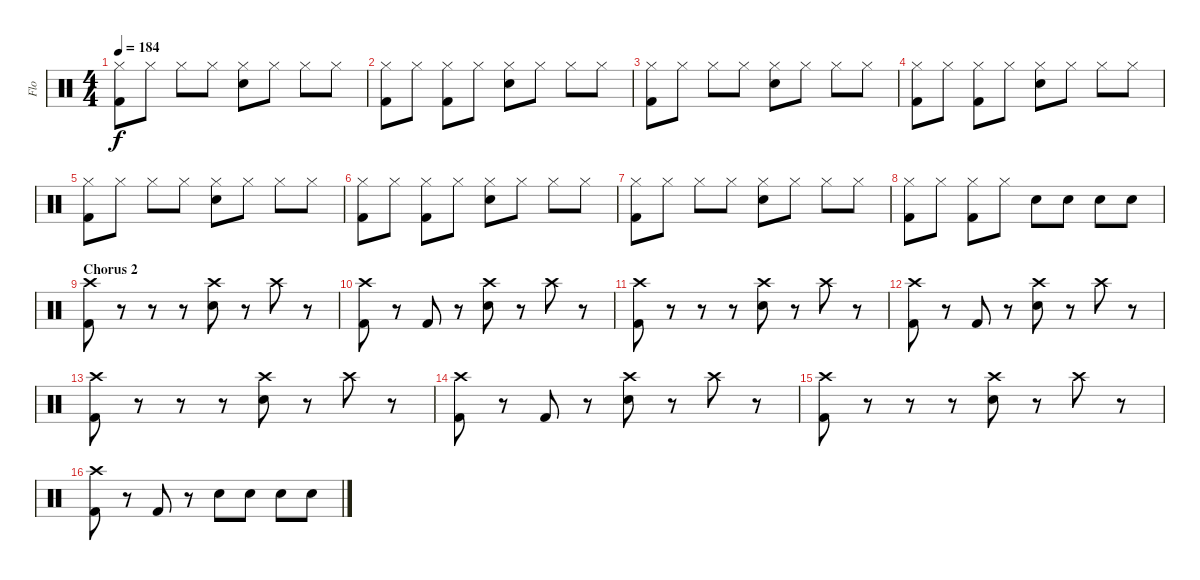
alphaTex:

\track ("Flo" "Flo") {instrument percussion}
\staff {score}
\articulation defaults
\ts (4 4)
\tempo 184
\clef neutral
\ks c
("Hi-Hat (closed)" "Kick (hit) 2").8{dy f} "Hi-Hat (closed)".8 "Hi-Hat (closed)".8 "Hi-Hat (closed)".8 ("Hi-Hat (closed)" "Electric Snare (hit)").8 "Hi-Hat (closed)".8 "Hi-Hat (closed)".8 "Hi-Hat (closed)".8 |
("Hi-Hat (closed)" "Kick (hit) 2").8 "Hi-Hat (closed)".8 ("Hi-Hat (closed)" "Kick (hit) 2").8 "Hi-Hat (closed)".8 ("Hi-Hat (closed)" "Electric Snare (hit)").8 "Hi-Hat (closed)".8 "Hi-Hat (closed)".8 "Hi-Hat (closed)".8 |
("Hi-Hat (closed)" "Kick (hit) 2").8 "Hi-Hat (closed)".8 "Hi-Hat (closed)".8 "Hi-Hat (closed)".8 ("Hi-Hat (closed)" "Electric Snare (hit)").8 "Hi-Hat (closed)".8 "Hi-Hat (closed)".8 "Hi-Hat (closed)".8 |
("Hi-Hat (closed)" "Kick (hit) 2").8 "Hi-Hat (closed)".8 ("Hi-Hat (closed)" "Kick (hit) 2").8 "Hi-Hat (closed)".8 ("Hi-Hat (closed)" "Electric Snare (hit)").8 "Hi-Hat (closed)".8 "Hi-Hat (closed)".8 "Hi-Hat (closed)".8 |
("Hi-Hat (closed)" "Kick (hit) 2").8 "Hi-Hat (closed)".8 "Hi-Hat (closed)".8 "Hi-Hat (closed)".8 ("Hi-Hat (closed)" "Electric Snare (hit)").8 "Hi-Hat (closed)".8 "Hi-Hat (closed)".8 "Hi-Hat (closed)".8 |
("Hi-Hat (closed)" "Kick (hit) 2").8 "Hi-Hat (closed)".8 ("Hi-Hat (closed)" "Kick (hit) 2").8 "Hi-Hat (closed)".8 ("Hi-Hat (closed)" "Electric Snare (hit)").8 "Hi-Hat (closed)".8 "Hi-Hat (closed)".8 "Hi-Hat (closed)".8 |
("Hi-Hat (closed)" "Kick (hit) 2").8 "Hi-Hat (closed)".8 "Hi-Hat (closed)".8 "Hi-Hat (closed)".8 ("Hi-Hat (closed)" "Electric Snare (hit)").8 "Hi-Hat (closed)".8 "Hi-Hat (closed)".8 "Hi-Hat (closed)".8 |
("Hi-Hat (closed)" "Kick (hit) 2").8 "Hi-Hat (closed)".8 ("Hi-Hat (closed)" "Kick (hit) 2").8 "Hi-Hat (closed)".8 "Electric Snare (hit)".8 "Electric Snare (hit)".8 "Electric Snare (hit)".8 "Electric Snare (hit)".8 |
\section ("" "Chorus 2")
("Crash high (hit)" "Kick (hit) 2").8 r.8 r.8 r.8 ("Crash high (hit)" "Electric Snare (hit)").8 r.8 "Crash high (hit)".8 r.8 |
("Crash high (hit)" "Kick (hit) 2").8 r.8 "Kick (hit) 2".8 r.8 ("Crash high (hit)" "Electric Snare (hit)").8 r.8 "Crash high (hit)".8 r.8 |
("Crash high (hit)" "Kick (hit) 2").8 r.8 r.8 r.8 ("Crash high (hit)" "Electric Snare (hit)").8 r.8 "Crash high (hit)".8 r.8 |
("Crash high (hit)" "Kick (hit) 2").8 r.8 "Kick (hit) 2".8 r.8 ("Crash high (hit)" "Electric Snare (hit)").8 r.8 "Crash high (hit)".8 r.8 |
("Crash high (hit)" "Kick (hit) 2").8 r.8 r.8 r.8 ("Crash high (hit)" "Electric Snare (hit)").8 r.8 "Crash high (hit)".8 r.8 |
("Crash high (hit)" "Kick (hit) 2").8 r.8 "Kick (hit) 2".8 r.8 ("Crash high (hit)" "Electric Snare (hit)").8 r.8 "Crash high (hit)".8 r.8 |
("Crash high (hit)" "Kick (hit) 2").8 r.8 r.8 r.8 ("Crash high (hit)" "Electric Snare (hit)").8 r.8 "Crash high (hit)".8 r.8 |
("Crash high (hit)" "Kick (hit) 2").8 r.8 "Kick (hit) 2".8 r.8 "Electric Snare (hit)".8 "Electric Snare (hit)".8 "Electric Snare (hit)".8 "Electric Snare (hit)".8
